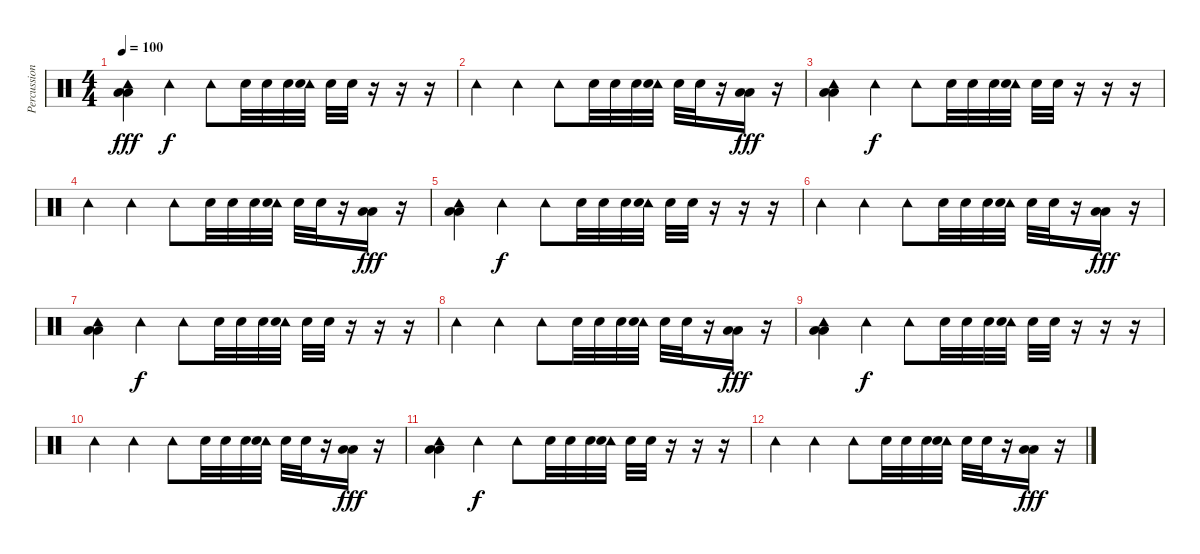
\track ("Percussion" "Percussion") {instrument percussion}
\staff {score}
\articulation defaults
\ts (4 4)
\tempo 100
\clef neutral
\ks c
("Tambourine (hit)" "Low Floor Tom (hit)" "Low Tom (hit)").4{dy fff} "Tambourine (hit)".4{dy f} "Tambourine (hit)".8 "Snare (hit) 2".32 "Snare (hit) 2".32 "Snare (hit) 2".32 ("Tambourine (hit)" "Snare (hit) 2").32 "Snare (hit) 2".32 "Snare (hit) 2".32 r.16 r.16 r.16 |
"Tambourine (hit)".4 "Tambourine (hit)".4 "Tambourine (hit)".8 "Snare (hit) 2".32 "Snare (hit) 2".32 "Snare (hit) 2".32 ("Tambourine (hit)" "Snare (hit) 2").32 "Snare (hit) 2".32 "Snare (hit) 2".32 r.16 ("Low Floor Tom (hit)" "Low Tom (hit)").16{dy fff} r.16 |
("Tambourine (hit)" "Low Floor Tom (hit)" "Low Tom (hit)").4 "Tambourine (hit)".4{dy f} "Tambourine (hit)".8 "Snare (hit) 2".32 "Snare (hit) 2".32 "Snare (hit) 2".32 ("Tambourine (hit)" "Snare (hit) 2").32 "Snare (hit) 2".32 "Snare (hit) 2".32 r.16 r.16 r.16 |
"Tambourine (hit)".4 "Tambourine (hit)".4 "Tambourine (hit)".8 "Snare (hit) 2".32 "Snare (hit) 2".32 "Snare (hit) 2".32 ("Tambourine (hit)" "Snare (hit) 2").32 "Snare (hit) 2".32 "Snare (hit) 2".32 r.16 ("Low Floor Tom (hit)" "Low Tom (hit)").16{dy fff} r.16 |
("Tambourine (hit)" "Low Floor Tom (hit)" "Low Tom (hit)").4 "Tambourine (hit)".4{dy f} "Tambourine (hit)".8 "Snare (hit) 2".32 "Snare (hit) 2".32 "Snare (hit) 2".32 ("Tambourine (hit)" "Snare (hit) 2").32 "Snare (hit) 2".32 "Snare (hit) 2".32 r.16 r.16 r.16 |
"Tambourine (hit)".4 "Tambourine (hit)".4 "Tambourine (hit)".8 "Snare (hit) 2".32 "Snare (hit) 2".32 "Snare (hit) 2".32 ("Tambourine (hit)" "Snare (hit) 2").32 "Snare (hit) 2".32 "Snare (hit) 2".32 r.16 ("Low Floor Tom (hit)" "Low Tom (hit)").16{dy fff} r.16 |
("Tambourine (hit)" "Low Floor Tom (hit)" "Low Tom (hit)").4 "Tambourine (hit)".4{dy f} "Tambourine (hit)".8 "Snare (hit) 2".32 "Snare (hit) 2".32 "Snare (hit) 2".32 ("Tambourine (hit)" "Snare (hit) 2").32 "Snare (hit) 2".32 "Snare (hit) 2".32 r.16 r.16 r.16 |
"Tambourine (hit)".4 "Tambourine (hit)".4 "Tambourine (hit)".8 "Snare (hit) 2".32 "Snare (hit) 2".32 "Snare (hit) 2".32 ("Tambourine (hit)" "Snare (hit) 2").32 "Snare (hit) 2".32 "Snare (hit) 2".32 r.16 ("Low Floor Tom (hit)" "Low Tom (hit)").16{dy fff} r.16 |
("Tambourine (hit)" "Low Floor Tom (hit)" "Low Tom (hit)").4 "Tambourine (hit)".4{dy f} "Tambourine (hit)".8 "Snare (hit) 2".32 "Snare (hit) 2".32 "Snare (hit) 2".32 ("Tambourine (hit)" "Snare (hit) 2").32 "Snare (hit) 2".32 "Snare (hit) 2".32 r.16 r.16 r.16 |
"Tambourine (hit)".4 "Tambourine (hit)".4 "Tambourine (hit)".8 "Snare (hit) 2".32 "Snare (hit) 2".32 "Snare (hit) 2".32 ("Tambourine (hit)" "Snare (hit) 2").32 "Snare (hit) 2".32 "Snare (hit) 2".32 r.16 ("Low Floor Tom (hit)" "Low Tom (hit)").16{dy fff} r.16 |
("Tambourine (hit)" "Low Floor Tom (hit)" "Low Tom (hit)").4 "Tambourine (hit)".4{dy f} "Tambourine (hit)".8 "Snare (hit) 2".32 "Snare (hit) 2".32 "Snare (hit) 2".32 ("Tambourine (hit)" "Snare (hit) 2").32 "Snare (hit) 2".32 "Snare (hit) 2".32 r.16 r.16 r.16 |
"Tambourine (hit)".4 "Tambourine (hit)".4 "Tambourine (hit)".8 "Snare (hit) 2".32 "Snare (hit) 2".32 "Snare (hit) 2".32 ("Tambourine (hit)" "Snare (hit) 2").32 "Snare (hit) 2".32 "Snare (hit) 2".32 r.16 ("Low Floor Tom (hit)" "Low Tom (hit)").16{dy fff} r.16
